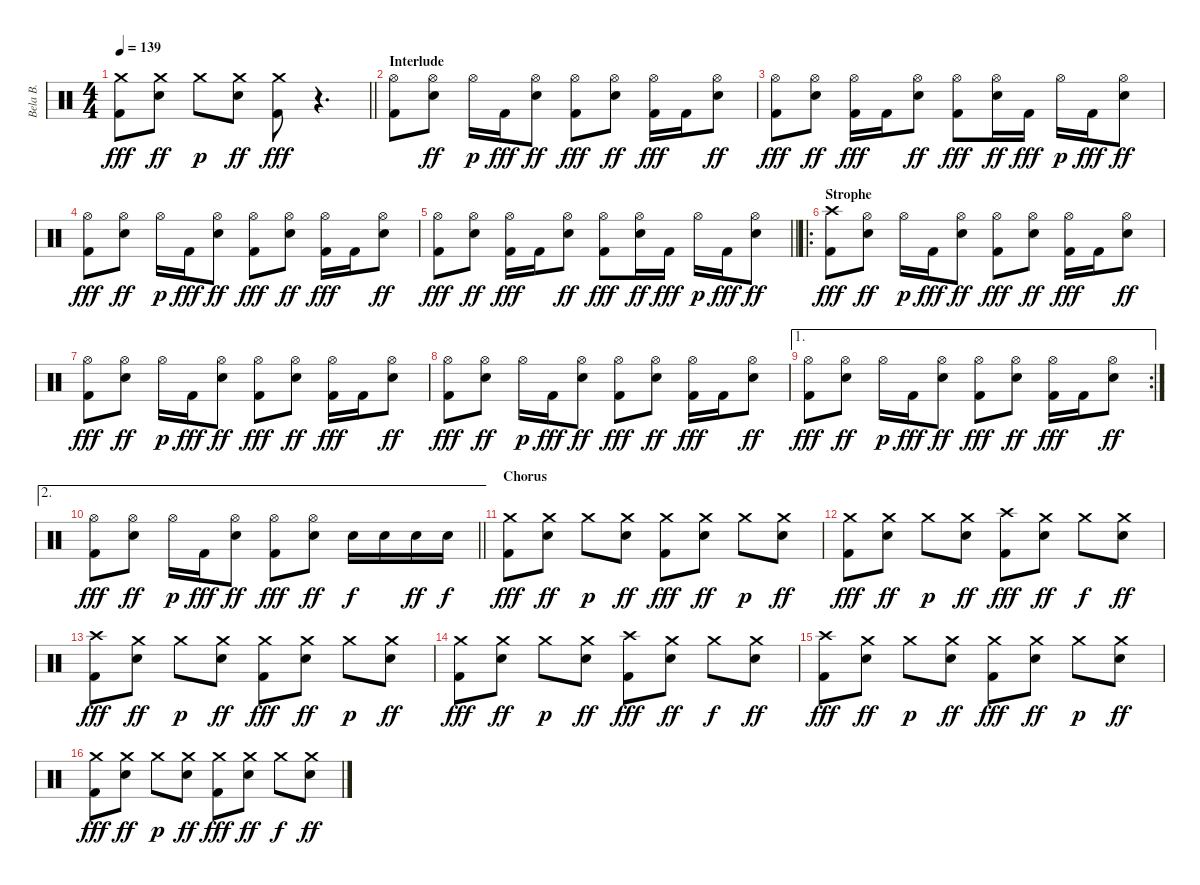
\track ("Bela B." "Bela B.") {instrument percussion}
\staff {score}
\articulation defaults
\ts (4 4)
\tempo 139
\clef neutral
\barLineRight lightlight
\ks c
("Crash medium (hit)" "Kick (hit) 2").8{dy fff} ("Crash medium (hit)" "Electric Snare (hit)").8{dy ff} "Crash medium (hit)".8{dy p} ("Crash medium (hit)" "Electric Snare (hit)").8{dy ff} ("Crash medium (hit)" "Kick (hit) 2").8{dy fff} r.4{d} |
\section ("" "Interlude")
("Hi-Hat (open)" "Kick (hit) 2").8 ("Hi-Hat (open)" "Electric Snare (hit)").8{dy ff} "Hi-Hat (open)".16{dy p} "Kick (hit) 2".16{dy fff} ("Hi-Hat (open)" "Electric Snare (hit)").8{dy ff} ("Hi-Hat (open)" "Kick (hit) 2").8{dy fff} ("Hi-Hat (open)" "Electric Snare (hit)").8{dy ff} ("Hi-Hat (open)" "Kick (hit) 2").16{dy fff} "Kick (hit) 2".16 ("Hi-Hat (open)" "Electric Snare (hit)").8{dy ff} |
("Hi-Hat (open)" "Kick (hit) 2").8{dy fff} ("Hi-Hat (open)" "Electric Snare (hit)").8{dy ff} ("Hi-Hat (open)" "Kick (hit) 2").16{dy fff} "Kick (hit) 2".16 ("Hi-Hat (open)" "Electric Snare (hit)").8{dy ff} ("Hi-Hat (open)" "Kick (hit) 2").8{dy fff} ("Hi-Hat (open)" "Electric Snare (hit)").16{dy ff} "Kick (hit) 2".16{dy fff} "Hi-Hat (open)".16{dy p} "Kick (hit) 2".16{dy fff} ("Hi-Hat (open)" "Electric Snare (hit)").8{dy ff} |
("Hi-Hat (open)" "Kick (hit) 2").8{dy fff} ("Hi-Hat (open)" "Electric Snare (hit)").8{dy ff} "Hi-Hat (open)".16{dy p} "Kick (hit) 2".16{dy fff} ("Hi-Hat (open)" "Electric Snare (hit)").8{dy ff} ("Hi-Hat (open)" "Kick (hit) 2").8{dy fff} ("Hi-Hat (open)" "Electric Snare (hit)").8{dy ff} ("Hi-Hat (open)" "Kick (hit) 2").16{dy fff} "Kick (hit) 2".16 ("Hi-Hat (open)" "Electric Snare (hit)").8{dy ff} |
\barLineRight lightlight
("Hi-Hat (open)" "Kick (hit) 2").8{dy fff} ("Hi-Hat (open)" "Electric Snare (hit)").8{dy ff} ("Hi-Hat (open)" "Kick (hit) 2").16{dy fff} "Kick (hit) 2".16 ("Hi-Hat (open)" "Electric Snare (hit)").8{dy ff} ("Hi-Hat (open)" "Kick (hit) 2").8{dy fff} ("Hi-Hat (open)" "Electric Snare (hit)").16{dy ff} "Kick (hit) 2".16{dy fff} "Hi-Hat (open)".16{dy p} "Kick (hit) 2".16{dy fff} ("Hi-Hat (open)" "Electric Snare (hit)").8{dy ff} |
\ro
\section ("" "Strophe")
("Crash high (hit)" "Kick (hit) 2").8{dy fff} ("Hi-Hat (open)" "Electric Snare (hit)").8{dy ff} "Hi-Hat (open)".16{dy p} "Kick (hit) 2".16{dy fff} ("Hi-Hat (open)" "Electric Snare (hit)").8{dy ff} ("Hi-Hat (open)" "Kick (hit) 2").8{dy fff} ("Hi-Hat (open)" "Electric Snare (hit)").8{dy ff} ("Hi-Hat (open)" "Kick (hit) 2").16{dy fff} "Kick (hit) 2".16 ("Hi-Hat (open)" "Electric Snare (hit)").8{dy ff} |
("Hi-Hat (open)" "Kick (hit) 2").8{dy fff} ("Hi-Hat (open)" "Electric Snare (hit)").8{dy ff} "Hi-Hat (open)".16{dy p} "Kick (hit) 2".16{dy fff} ("Hi-Hat (open)" "Electric Snare (hit)").8{dy ff} ("Hi-Hat (open)" "Kick (hit) 2").8{dy fff} ("Hi-Hat (open)" "Electric Snare (hit)").8{dy ff} ("Hi-Hat (open)" "Kick (hit) 2").16{dy fff} "Kick (hit) 2".16 ("Hi-Hat (open)" "Electric Snare (hit)").8{dy ff} |
("Hi-Hat (open)" "Kick (hit) 2").8{dy fff} ("Hi-Hat (open)" "Electric Snare (hit)").8{dy ff} "Hi-Hat (open)".16{dy p} "Kick (hit) 2".16{dy fff} ("Hi-Hat (open)" "Electric Snare (hit)").8{dy ff} ("Hi-Hat (open)" "Kick (hit) 2").8{dy fff} ("Hi-Hat (open)" "Electric Snare (hit)").8{dy ff} ("Hi-Hat (open)" "Kick (hit) 2").16{dy fff} "Kick (hit) 2".16 ("Hi-Hat (open)" "Electric Snare (hit)").8{dy ff} |
\ae 1
\rc 2
("Hi-Hat (open)" "Kick (hit) 2").8{dy fff} ("Hi-Hat (open)" "Electric Snare (hit)").8{dy ff} "Hi-Hat (open)".16{dy p} "Kick (hit) 2".16{dy fff} ("Hi-Hat (open)" "Electric Snare (hit)").8{dy ff} ("Hi-Hat (open)" "Kick (hit) 2").8{dy fff} ("Hi-Hat (open)" "Electric Snare (hit)").8{dy ff} ("Hi-Hat (open)" "Kick (hit) 2").16{dy fff} "Kick (hit) 2".16 ("Hi-Hat (open)" "Electric Snare (hit)").8{dy ff} |
\ae 2
\barLineRight lightlight
("Hi-Hat (open)" "Kick (hit) 2").8{dy fff} ("Hi-Hat (open)" "Electric Snare (hit)").8{dy ff} "Hi-Hat (open)".16{dy p} "Kick (hit) 2".16{dy fff} ("Hi-Hat (open)" "Electric Snare (hit)").8{dy ff} ("Hi-Hat (open)" "Kick (hit) 2").8{dy fff} ("Hi-Hat (open)" "Electric Snare (hit)").8{dy ff} "Electric Snare (hit)".16{dy f} "Electric Snare (hit)".16 "Electric Snare (hit)".16{dy ff} "Electric Snare (hit)".16{dy f} |
\section ("" "Chorus")
("Crash medium (hit)" "Kick (hit) 2").8{dy fff} ("Crash medium (hit)" "Electric Snare (hit)").8{dy ff} "Crash medium (hit)".8{dy p} ("Crash medium (hit)" "Electric Snare (hit)").8{dy ff} ("Crash medium (hit)" "Kick (hit) 2").8{dy fff} ("Crash medium (hit)" "Electric Snare (hit)").8{dy ff} "Crash medium (hit)".8{dy p} ("Crash medium (hit)" "Electric Snare (hit)").8{dy ff} |
("Crash medium (hit)" "Kick (hit) 2").8{dy fff} ("Crash medium (hit)" "Electric Snare (hit)").8{dy ff} "Crash medium (hit)".8{dy p} ("Crash medium (hit)" "Electric Snare (hit)").8{dy ff} ("Crash high (hit)" "Kick (hit) 2").8{dy fff} ("Crash medium (hit)" "Electric Snare (hit)").8{dy ff} "Crash medium (hit)".8{dy f} ("Crash medium (hit)" "Electric Snare (hit)").8{dy ff} |
("Crash high (hit)" "Kick (hit) 2").8{dy fff} ("Crash medium (hit)" "Electric Snare (hit)").8{dy ff} "Crash medium (hit)".8{dy p} ("Crash medium (hit)" "Electric Snare (hit)").8{dy ff} ("Crash medium (hit)" "Kick (hit) 2").8{dy fff} ("Crash medium (hit)" "Electric Snare (hit)").8{dy ff} "Crash medium (hit)".8{dy p} ("Crash medium (hit)" "Electric Snare (hit)").8{dy ff} |
("Crash medium (hit)" "Kick (hit) 2").8{dy fff} ("Crash medium (hit)" "Electric Snare (hit)").8{dy ff} "Crash medium (hit)".8{dy p} ("Crash medium (hit)" "Electric Snare (hit)").8{dy ff} ("Crash high (hit)" "Kick (hit) 2").8{dy fff} ("Crash medium (hit)" "Electric Snare (hit)").8{dy ff} "Crash medium (hit)".8{dy f} ("Crash medium (hit)" "Electric Snare (hit)").8{dy ff} |
("Crash high (hit)" "Kick (hit) 2").8{dy fff} ("Crash medium (hit)" "Electric Snare (hit)").8{dy ff} "Crash medium (hit)".8{dy p} ("Crash medium (hit)" "Electric Snare (hit)").8{dy ff} ("Crash medium (hit)" "Kick (hit) 2").8{dy fff} ("Crash medium (hit)" "Electric Snare (hit)").8{dy ff} "Crash medium (hit)".8{dy p} ("Crash medium (hit)" "Electric Snare (hit)").8{dy ff} |
("Crash medium (hit)" "Kick (hit) 2").8{dy fff} ("Crash medium (hit)" "Electric Snare (hit)").8{dy ff} "Crash medium (hit)".8{dy p} ("Crash medium (hit)" "Electric Snare (hit)").8{dy ff} ("Crash medium (hit)" "Kick (hit) 2").8{dy fff} ("Crash medium (hit)" "Electric Snare (hit)").8{dy ff} "Crash medium (hit)".8{dy f} ("Crash medium (hit)" "Electric Snare (hit)").8{dy ff}
